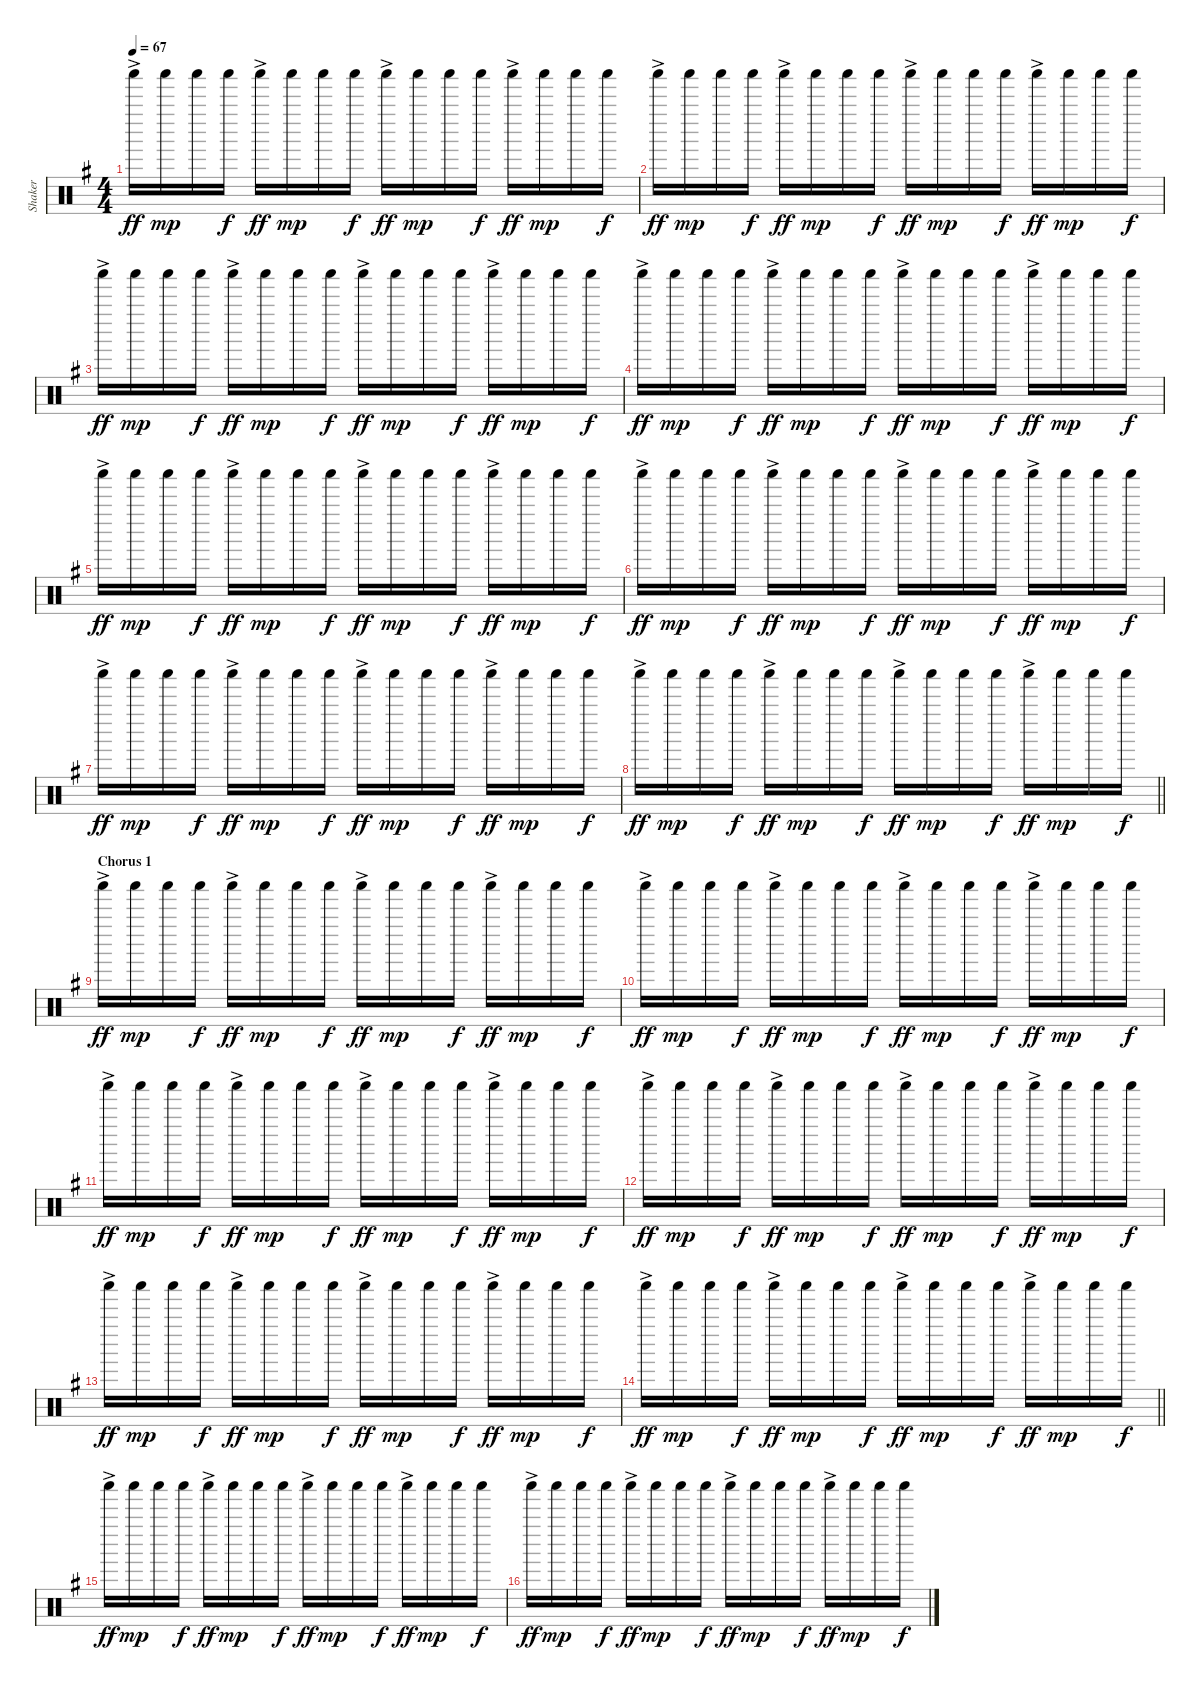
\track ("Shaker" "Shaker") {instrument percussion}
\staff {score}
\articulation defaults
\ts (4 4)
\tempo 67
\clef neutral
\ks g "Shaker (hit)"{ac}.16{dy ff} "Shaker (hit)".16{dy mp} "Shaker (hit)".16 "Shaker (hit)".16{dy f} "Shaker (hit)"{ac}.16{dy ff} "Shaker (hit)".16{dy mp} "Shaker (hit)".16 "Shaker (hit)".16{dy f} "Shaker (hit)"{ac}.16{dy ff} "Shaker (hit)".16{dy mp} "Shaker (hit)".16 "Shaker (hit)".16{dy f} "Shaker (hit)"{ac}.16{dy ff} "Shaker (hit)".16{dy mp} "Shaker (hit)".16 "Shaker (hit)".16{dy f}
|
"Shaker (hit)"{ac}.16{dy ff} "Shaker (hit)".16{dy mp} "Shaker (hit)".16 "Shaker (hit)".16{dy f} "Shaker (hit)"{ac}.16{dy ff} "Shaker (hit)".16{dy mp} "Shaker (hit)".16 "Shaker (hit)".16{dy f} "Shaker (hit)"{ac}.16{dy ff} "Shaker (hit)".16{dy mp} "Shaker (hit)".16 "Shaker (hit)".16{dy f} "Shaker (hit)"{ac}.16{dy ff} "Shaker (hit)".16{dy mp} "Shaker (hit)".16 "Shaker (hit)".16{dy f} |
"Shaker (hit)"{ac}.16{dy ff} "Shaker (hit)".16{dy mp} "Shaker (hit)".16 "Shaker (hit)".16{dy f} "Shaker (hit)"{ac}.16{dy ff} "Shaker (hit)".16{dy mp} "Shaker (hit)".16 "Shaker (hit)".16{dy f} "Shaker (hit)"{ac}.16{dy ff} "Shaker (hit)".16{dy mp} "Shaker (hit)".16 "Shaker (hit)".16{dy f} "Shaker (hit)"{ac}.16{dy ff} "Shaker (hit)".16{dy mp} "Shaker (hit)".16 "Shaker (hit)".16{dy f} |
"Shaker (hit)"{ac}.16{dy ff} "Shaker (hit)".16{dy mp} "Shaker (hit)".16 "Shaker (hit)".16{dy f} "Shaker (hit)"{ac}.16{dy ff} "Shaker (hit)".16{dy mp} "Shaker (hit)".16 "Shaker (hit)".16{dy f} "Shaker (hit)"{ac}.16{dy ff} "Shaker (hit)".16{dy mp} "Shaker (hit)".16 "Shaker (hit)".16{dy f} "Shaker (hit)"{ac}.16{dy ff} "Shaker (hit)".16{dy mp} "Shaker (hit)".16 "Shaker (hit)".16{dy f} |
"Shaker (hit)"{ac}.16{dy ff} "Shaker (hit)".16{dy mp} "Shaker (hit)".16 "Shaker (hit)".16{dy f} "Shaker (hit)"{ac}.16{dy ff} "Shaker (hit)".16{dy mp} "Shaker (hit)".16 "Shaker (hit)".16{dy f} "Shaker (hit)"{ac}.16{dy ff} "Shaker (hit)".16{dy mp} "Shaker (hit)".16 "Shaker (hit)".16{dy f} "Shaker (hit)"{ac}.16{dy ff} "Shaker (hit)".16{dy mp} "Shaker (hit)".16 "Shaker (hit)".16{dy f} |
"Shaker (hit)"{ac}.16{dy ff} "Shaker (hit)".16{dy mp} "Shaker (hit)".16 "Shaker (hit)".16{dy f} "Shaker (hit)"{ac}.16{dy ff} "Shaker (hit)".16{dy mp} "Shaker (hit)".16 "Shaker (hit)".16{dy f} "Shaker (hit)"{ac}.16{dy ff} "Shaker (hit)".16{dy mp} "Shaker (hit)".16 "Shaker (hit)".16{dy f} "Shaker (hit)"{ac}.16{dy ff} "Shaker (hit)".16{dy mp} "Shaker (hit)".16 "Shaker (hit)".16{dy f} |
"Shaker (hit)"{ac}.16{dy ff} "Shaker (hit)".16{dy mp} "Shaker (hit)".16 "Shaker (hit)".16{dy f} "Shaker (hit)"{ac}.16{dy ff} "Shaker (hit)".16{dy mp} "Shaker (hit)".16 "Shaker (hit)".16{dy f} "Shaker (hit)"{ac}.16{dy ff} "Shaker (hit)".16{dy mp} "Shaker (hit)".16 "Shaker (hit)".16{dy f} "Shaker (hit)"{ac}.16{dy ff} "Shaker (hit)".16{dy mp} "Shaker (hit)".16 "Shaker (hit)".16{dy f} |
\barLineRight lightlight "Shaker (hit)"{ac}.16{dy ff} "Shaker (hit)".16{dy mp} "Shaker (hit)".16 "Shaker (hit)".16{dy f} "Shaker (hit)"{ac}.16{dy ff} "Shaker (hit)".16{dy mp} "Shaker (hit)".16 "Shaker (hit)".16{dy f} "Shaker (hit)"{ac}.16{dy ff} "Shaker (hit)".16{dy mp} "Shaker (hit)".16 "Shaker (hit)".16{dy f} "Shaker (hit)"{ac}.16{dy ff} "Shaker (hit)".16{dy mp} "Shaker (hit)".16 "Shaker (hit)".16{dy f}
|
\section ("" "Chorus 1")
"Shaker (hit)"{ac}.16{dy ff} "Shaker (hit)".16{dy mp} "Shaker (hit)".16 "Shaker (hit)".16{dy f} "Shaker (hit)"{ac}.16{dy ff} "Shaker (hit)".16{dy mp} "Shaker (hit)".16 "Shaker (hit)".16{dy f} "Shaker (hit)"{ac}.16{dy ff} "Shaker (hit)".16{dy mp} "Shaker (hit)".16 "Shaker (hit)".16{dy f} "Shaker (hit)"{ac}.16{dy ff} "Shaker (hit)".16{dy mp} "Shaker (hit)".16 "Shaker (hit)".16{dy f} |
"Shaker (hit)"{ac}.16{dy ff} "Shaker (hit)".16{dy mp} "Shaker (hit)".16 "Shaker (hit)".16{dy f} "Shaker (hit)"{ac}.16{dy ff} "Shaker (hit)".16{dy mp} "Shaker (hit)".16 "Shaker (hit)".16{dy f} "Shaker (hit)"{ac}.16{dy ff} "Shaker (hit)".16{dy mp} "Shaker (hit)".16 "Shaker (hit)".16{dy f} "Shaker (hit)"{ac}.16{dy ff} "Shaker (hit)".16{dy mp} "Shaker (hit)".16 "Shaker (hit)".16{dy f} |
"Shaker (hit)"{ac}.16{dy ff} "Shaker (hit)".16{dy mp} "Shaker (hit)".16 "Shaker (hit)".16{dy f} "Shaker (hit)"{ac}.16{dy ff} "Shaker (hit)".16{dy mp} "Shaker (hit)".16 "Shaker (hit)".16{dy f} "Shaker (hit)"{ac}.16{dy ff} "Shaker (hit)".16{dy mp} "Shaker (hit)".16 "Shaker (hit)".16{dy f} "Shaker (hit)"{ac}.16{dy ff} "Shaker (hit)".16{dy mp} "Shaker (hit)".16 "Shaker (hit)".16{dy f} |
"Shaker (hit)"{ac}.16{dy ff} "Shaker (hit)".16{dy mp} "Shaker (hit)".16 "Shaker (hit)".16{dy f} "Shaker (hit)"{ac}.16{dy ff} "Shaker (hit)".16{dy mp} "Shaker (hit)".16 "Shaker (hit)".16{dy f} "Shaker (hit)"{ac}.16{dy ff} "Shaker (hit)".16{dy mp} "Shaker (hit)".16 "Shaker (hit)".16{dy f} "Shaker (hit)"{ac}.16{dy ff} "Shaker (hit)".16{dy mp} "Shaker (hit)".16 "Shaker (hit)".16{dy f} |
"Shaker (hit)"{ac}.16{dy ff} "Shaker (hit)".16{dy mp} "Shaker (hit)".16 "Shaker (hit)".16{dy f} "Shaker (hit)"{ac}.16{dy ff} "Shaker (hit)".16{dy mp} "Shaker (hit)".16 "Shaker (hit)".16{dy f} "Shaker (hit)"{ac}.16{dy ff} "Shaker (hit)".16{dy mp} "Shaker (hit)".16 "Shaker (hit)".16{dy f} "Shaker (hit)"{ac}.16{dy ff} "Shaker (hit)".16{dy mp} "Shaker (hit)".16 "Shaker (hit)".16{dy f} |
\barLineRight lightlight "Shaker (hit)"{ac}.16{dy ff} "Shaker (hit)".16{dy mp} "Shaker (hit)".16 "Shaker (hit)".16{dy f} "Shaker (hit)"{ac}.16{dy ff} "Shaker (hit)".16{dy mp} "Shaker (hit)".16 "Shaker (hit)".16{dy f} "Shaker (hit)"{ac}.16{dy ff} "Shaker (hit)".16{dy mp} "Shaker (hit)".16 "Shaker (hit)".16{dy f} "Shaker (hit)"{ac}.16{dy ff} "Shaker (hit)".16{dy mp} "Shaker (hit)".16 "Shaker (hit)".16{dy f}
|
"Shaker (hit)"{ac}.16{dy ff} "Shaker (hit)".16{dy mp} "Shaker (hit)".16 "Shaker (hit)".16{dy f} "Shaker (hit)"{ac}.16{dy ff} "Shaker (hit)".16{dy mp} "Shaker (hit)".16 "Shaker (hit)".16{dy f} "Shaker (hit)"{ac}.16{dy ff} "Shaker (hit)".16{dy mp} "Shaker (hit)".16 "Shaker (hit)".16{dy f} "Shaker (hit)"{ac}.16{dy ff} "Shaker (hit)".16{dy mp} "Shaker (hit)".16 "Shaker (hit)".16{dy f} |
"Shaker (hit)"{ac}.16{dy ff} "Shaker (hit)".16{dy mp} "Shaker (hit)".16 "Shaker (hit)".16{dy f} "Shaker (hit)"{ac}.16{dy ff} "Shaker (hit)".16{dy mp} "Shaker (hit)".16 "Shaker (hit)".16{dy f} "Shaker (hit)"{ac}.16{dy ff} "Shaker (hit)".16{dy mp} "Shaker (hit)".16 "Shaker (hit)".16{dy f} "Shaker (hit)"{ac}.16{dy ff} "Shaker (hit)".16{dy mp} "Shaker (hit)".16 "Shaker (hit)".16{dy f}
